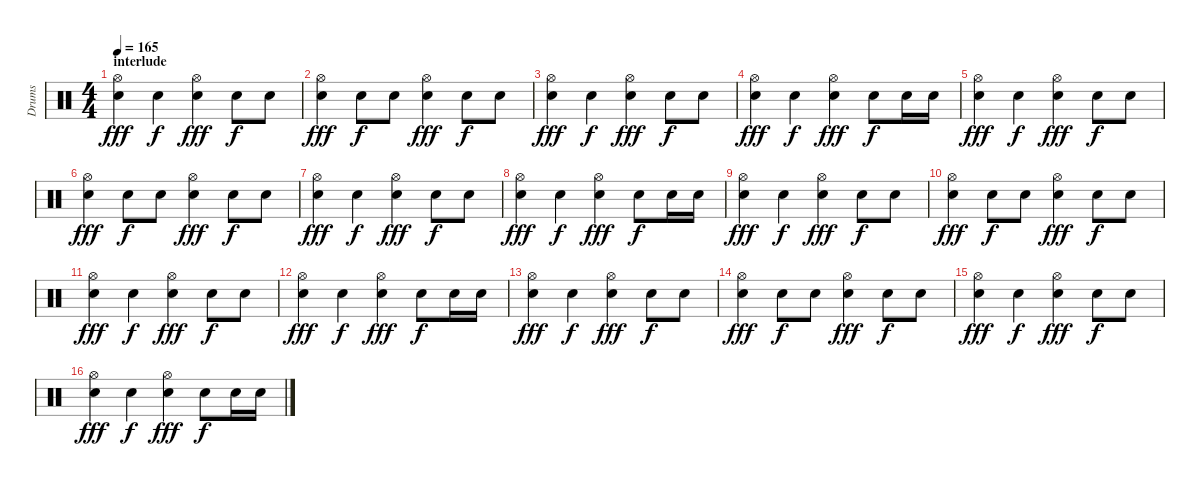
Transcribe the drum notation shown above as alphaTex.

\track ("Drums" "Drums") {instrument percussion}
\staff {score}
\articulation defaults
\ts (4 4)
\section ("" "interlude")
\tempo 165
\clef neutral
\ks c
("Hi-Hat (open)" "Electric Snare (hit)").4{dy fff} "Electric Snare (hit)".4{dy f} ("Electric Snare (hit)" "Hi-Hat (open)").4{dy fff} "Electric Snare (hit)".8{dy f} "Electric Snare (hit)".8 |
("Electric Snare (hit)" "Hi-Hat (open)").4{dy fff} "Electric Snare (hit)".8{dy f} "Electric Snare (hit)".8 ("Electric Snare (hit)" "Hi-Hat (open)").4{dy fff} "Electric Snare (hit)".8{dy f} "Electric Snare (hit)".8 |
("Hi-Hat (open)" "Electric Snare (hit)").4{dy fff} "Electric Snare (hit)".4{dy f} ("Electric Snare (hit)" "Hi-Hat (open)").4{dy fff} "Electric Snare (hit)".8{dy f} "Electric Snare (hit)".8 |
("Electric Snare (hit)" "Hi-Hat (open)").4{dy fff} "Electric Snare (hit)".4{dy f} ("Electric Snare (hit)" "Hi-Hat (open)").4{dy fff} "Electric Snare (hit)".8{dy f} "Electric Snare (hit)".16 "Electric Snare (hit)".16 |
("Hi-Hat (open)" "Electric Snare (hit)").4{dy fff} "Electric Snare (hit)".4{dy f} ("Electric Snare (hit)" "Hi-Hat (open)").4{dy fff} "Electric Snare (hit)".8{dy f} "Electric Snare (hit)".8 |
("Electric Snare (hit)" "Hi-Hat (open)").4{dy fff} "Electric Snare (hit)".8{dy f} "Electric Snare (hit)".8 ("Electric Snare (hit)" "Hi-Hat (open)").4{dy fff} "Electric Snare (hit)".8{dy f} "Electric Snare (hit)".8 |
("Hi-Hat (open)" "Electric Snare (hit)").4{dy fff} "Electric Snare (hit)".4{dy f} ("Electric Snare (hit)" "Hi-Hat (open)").4{dy fff} "Electric Snare (hit)".8{dy f} "Electric Snare (hit)".8 |
("Electric Snare (hit)" "Hi-Hat (open)").4{dy fff} "Electric Snare (hit)".4{dy f} ("Electric Snare (hit)" "Hi-Hat (open)").4{dy fff} "Electric Snare (hit)".8{dy f} "Electric Snare (hit)".16 "Electric Snare (hit)".16 |
("Hi-Hat (open)" "Electric Snare (hit)").4{dy fff} "Electric Snare (hit)".4{dy f} ("Electric Snare (hit)" "Hi-Hat (open)").4{dy fff} "Electric Snare (hit)".8{dy f} "Electric Snare (hit)".8 |
("Electric Snare (hit)" "Hi-Hat (open)").4{dy fff} "Electric Snare (hit)".8{dy f} "Electric Snare (hit)".8 ("Electric Snare (hit)" "Hi-Hat (open)").4{dy fff} "Electric Snare (hit)".8{dy f} "Electric Snare (hit)".8 |
("Hi-Hat (open)" "Electric Snare (hit)").4{dy fff} "Electric Snare (hit)".4{dy f} ("Electric Snare (hit)" "Hi-Hat (open)").4{dy fff} "Electric Snare (hit)".8{dy f} "Electric Snare (hit)".8 |
("Electric Snare (hit)" "Hi-Hat (open)").4{dy fff} "Electric Snare (hit)".4{dy f} ("Electric Snare (hit)" "Hi-Hat (open)").4{dy fff} "Electric Snare (hit)".8{dy f} "Electric Snare (hit)".16 "Electric Snare (hit)".16 |
("Hi-Hat (open)" "Electric Snare (hit)").4{dy fff} "Electric Snare (hit)".4{dy f} ("Electric Snare (hit)" "Hi-Hat (open)").4{dy fff} "Electric Snare (hit)".8{dy f} "Electric Snare (hit)".8 |
("Electric Snare (hit)" "Hi-Hat (open)").4{dy fff} "Electric Snare (hit)".8{dy f} "Electric Snare (hit)".8 ("Electric Snare (hit)" "Hi-Hat (open)").4{dy fff} "Electric Snare (hit)".8{dy f} "Electric Snare (hit)".8 |
("Hi-Hat (open)" "Electric Snare (hit)").4{dy fff} "Electric Snare (hit)".4{dy f} ("Electric Snare (hit)" "Hi-Hat (open)").4{dy fff} "Electric Snare (hit)".8{dy f} "Electric Snare (hit)".8 |
("Electric Snare (hit)" "Hi-Hat (open)").4{dy fff} "Electric Snare (hit)".4{dy f} ("Electric Snare (hit)" "Hi-Hat (open)").4{dy fff} "Electric Snare (hit)".8{dy f} "Electric Snare (hit)".16 "Electric Snare (hit)".16
